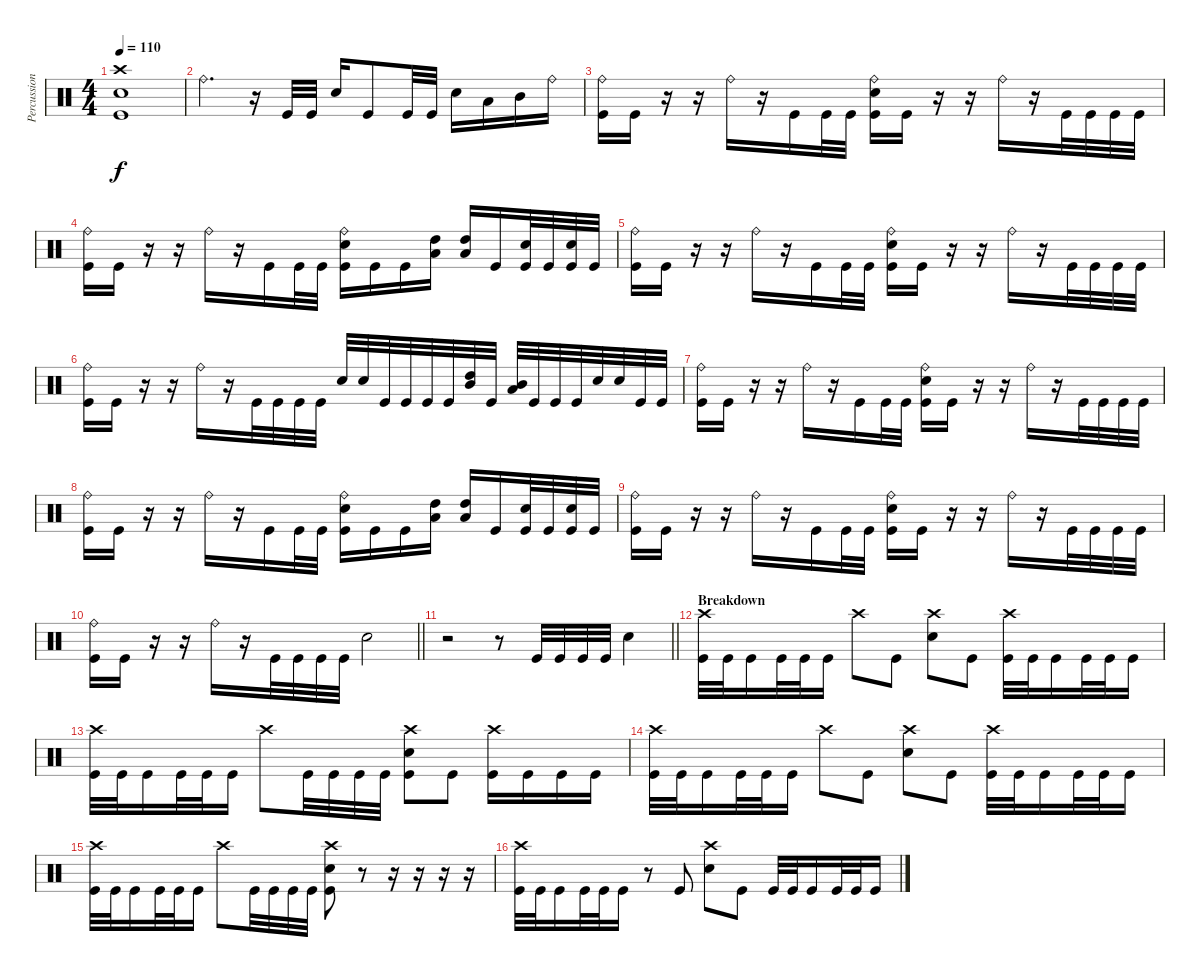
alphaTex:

\track ("Percussion" "Percussion") {instrument percussion}
\staff {score}
\articulation defaults
\ts (4 4)
\tempo 110
\clef neutral
\ks c
("Snare (hit) 2" "Kick (hit)" "Crash high (hit)").1{dy f} |
"Ride (bell)".4{d} r.16 "Kick (hit)".32 "Kick (hit)".32 "Snare (hit) 2".16 "Kick (hit)".8 "Kick (hit)".32 "Kick (hit)".32 "Snare (hit) 2".16 "Low Tom (hit)".16 "Mid Tom (hit)".16 "Ride (bell)".16 |
("Ride (bell)" "Kick (hit)").16 "Kick (hit)".16 r.16 r.16 "Ride (bell)".16 r.16 "Kick (hit)".16 "Kick (hit)".32 "Kick (hit)".32 ("Kick (hit)" "Snare (hit) 2" "Ride (bell)").16 "Kick (hit)".16 r.16 r.16 "Ride (bell)".16 r.16 "Kick (hit)".32 "Kick (hit)".32 "Kick (hit)".32 "Kick (hit)".32 |
("Ride (bell)" "Kick (hit)").16 "Kick (hit)".16 r.16 r.16 "Ride (bell)".16 r.16 "Kick (hit)".16 "Kick (hit)".32 "Kick (hit)".32 ("Kick (hit)" "Snare (hit) 2" "Ride (bell)").16 "Kick (hit)".16 "Kick (hit)".16 ("High Tom (hit)" "Low Tom (hit)").16 ("High Tom (hit)" "Low Tom (hit)").16 "Kick (hit)".16 ("Kick (hit)" "Snare (hit) 2").32 "Kick (hit)".32 ("Kick (hit)" "Snare (hit) 2").32 "Kick (hit)".32 |
("Ride (bell)" "Kick (hit)").16 "Kick (hit)".16 r.16 r.16 "Ride (bell)".16 r.16 "Kick (hit)".16 "Kick (hit)".32 "Kick (hit)".32 ("Kick (hit)" "Snare (hit) 2" "Ride (bell)").16 "Kick (hit)".16 r.16 r.16 "Ride (bell)".16 r.16 "Kick (hit)".32 "Kick (hit)".32 "Kick (hit)".32 "Kick (hit)".32 |
("Ride (bell)" "Kick (hit)").16 "Kick (hit)".16 r.16 r.16 "Ride (bell)".16 r.16 "Kick (hit)".32 "Kick (hit)".32 "Kick (hit)".32 "Kick (hit)".32 "Snare (hit) 2".32 "Snare (hit) 2".32 "Kick (hit)".32 "Kick (hit)".32 "Kick (hit)".32 "Kick (hit)".32 ("High Tom (hit)" "Mid Tom (hit)").32 "Kick (hit)".32 ("Mid Tom (hit)" "Low Tom (hit)").32 "Kick (hit)".32 "Kick (hit)".32 "Kick (hit)".32 "Snare (hit) 2".32 "Snare (hit) 2".32 "Kick (hit)".32 "Kick (hit)".32 |
("Ride (bell)" "Kick (hit)").16 "Kick (hit)".16 r.16 r.16 "Ride (bell)".16 r.16 "Kick (hit)".16 "Kick (hit)".32 "Kick (hit)".32 ("Kick (hit)" "Snare (hit) 2" "Ride (bell)").16 "Kick (hit)".16 r.16 r.16 "Ride (bell)".16 r.16 "Kick (hit)".32 "Kick (hit)".32 "Kick (hit)".32 "Kick (hit)".32 |
("Ride (bell)" "Kick (hit)").16 "Kick (hit)".16 r.16 r.16 "Ride (bell)".16 r.16 "Kick (hit)".16 "Kick (hit)".32 "Kick (hit)".32 ("Kick (hit)" "Snare (hit) 2" "Ride (bell)").16 "Kick (hit)".16 "Kick (hit)".16 ("High Tom (hit)" "Low Tom (hit)").16 ("High Tom (hit)" "Low Tom (hit)").16 "Kick (hit)".16 ("Kick (hit)" "Snare (hit) 2").32 "Kick (hit)".32 ("Kick (hit)" "Snare (hit) 2").32 "Kick (hit)".32 |
("Ride (bell)" "Kick (hit)").16 "Kick (hit)".16 r.16 r.16 "Ride (bell)".16 r.16 "Kick (hit)".16 "Kick (hit)".32 "Kick (hit)".32 ("Kick (hit)" "Snare (hit) 2" "Ride (bell)").16 "Kick (hit)".16 r.16 r.16 "Ride (bell)".16 r.16 "Kick (hit)".32 "Kick (hit)".32 "Kick (hit)".32 "Kick (hit)".32 |
\barLineRight lightlight
("Ride (bell)" "Kick (hit)").16 "Kick (hit)".16 r.16 r.16 "Ride (bell)".16 r.16 "Kick (hit)".32 "Kick (hit)".32 "Kick (hit)".32 "Kick (hit)".32 "Snare (hit) 2".2 |
\barLineRight lightlight
r.2 r.8 "Kick (hit)".32 "Kick (hit)".32 "Kick (hit)".32 "Kick (hit)".32 "Snare (hit) 2".4 |
\section ("" "Breakdown")
("Kick (hit)" "Crash high (hit)").32 "Kick (hit)".32 "Kick (hit)".16 "Kick (hit)".32 "Kick (hit)".32 "Kick (hit)".16 "Crash high (hit)".8 "Kick (hit)".8 ("Snare (hit) 2" "Crash high (hit)").8 "Kick (hit)".8 ("Kick (hit)" "Crash high (hit)").32 "Kick (hit)".32 "Kick (hit)".16 "Kick (hit)".32 "Kick (hit)".32 "Kick (hit)".16 |
("Kick (hit)" "Crash high (hit)").32 "Kick (hit)".32 "Kick (hit)".16 "Kick (hit)".32 "Kick (hit)".32 "Kick (hit)".16 "Crash high (hit)".8 "Kick (hit)".32 "Kick (hit)".32 "Kick (hit)".32 "Kick (hit)".32 ("Kick (hit)" "Snare (hit) 2" "Crash high (hit)").8 "Kick (hit)".8 ("Kick (hit)" "Crash high (hit)").16 "Kick (hit)".16 "Kick (hit)".16 "Kick (hit)".16 |
("Kick (hit)" "Crash high (hit)").32 "Kick (hit)".32 "Kick (hit)".16 "Kick (hit)".32 "Kick (hit)".32 "Kick (hit)".16 "Crash high (hit)".8 "Kick (hit)".8 ("Snare (hit) 2" "Crash high (hit)").8 "Kick (hit)".8 ("Kick (hit)" "Crash high (hit)").32 "Kick (hit)".32 "Kick (hit)".16 "Kick (hit)".32 "Kick (hit)".32 "Kick (hit)".16 |
("Kick (hit)" "Crash high (hit)").32 "Kick (hit)".32 "Kick (hit)".16 "Kick (hit)".32 "Kick (hit)".32 "Kick (hit)".16 "Crash high (hit)".8 "Kick (hit)".32 "Kick (hit)".32 "Kick (hit)".32 "Kick (hit)".32 ("Kick (hit)" "Snare (hit) 2" "Crash high (hit)").8 r.8 r.16 r.16 r.16 r.16 |
("Kick (hit)" "Crash high (hit)").32 "Kick (hit)".32 "Kick (hit)".16 "Kick (hit)".32 "Kick (hit)".32 "Kick (hit)".16 r.8 "Kick (hit)".8 ("Snare (hit) 2" "Crash high (hit)").8 "Kick (hit)".8 "Kick (hit)".32 "Kick (hit)".32 "Kick (hit)".16 "Kick (hit)".32 "Kick (hit)".32 "Kick (hit)".16
